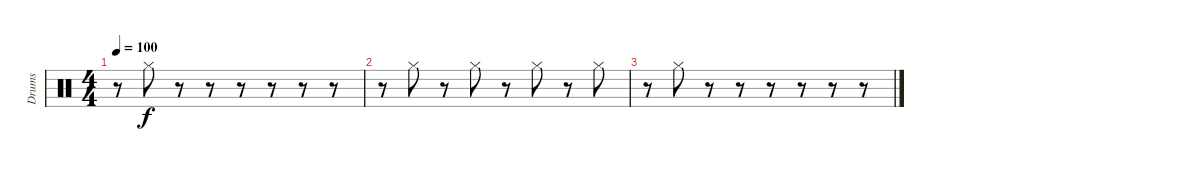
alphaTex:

\track ("Drums" "Drums") {instrument percussion}
\staff {score}
\articulation defaults
\ts (4 4)
\tempo 100
\clef neutral
\ks c
r.8{dy f} "Hi-Hat (closed)".8 r.8 r.8 r.8 r.8 r.8 r.8 |
r.8 "Hi-Hat (closed)".8 r.8 "Hi-Hat (closed)".8 r.8 "Hi-Hat (closed)".8 r.8 "Hi-Hat (closed)".8 |
r.8 "Hi-Hat (closed)".8 r.8 r.8 r.8 r.8 r.8 r.8
